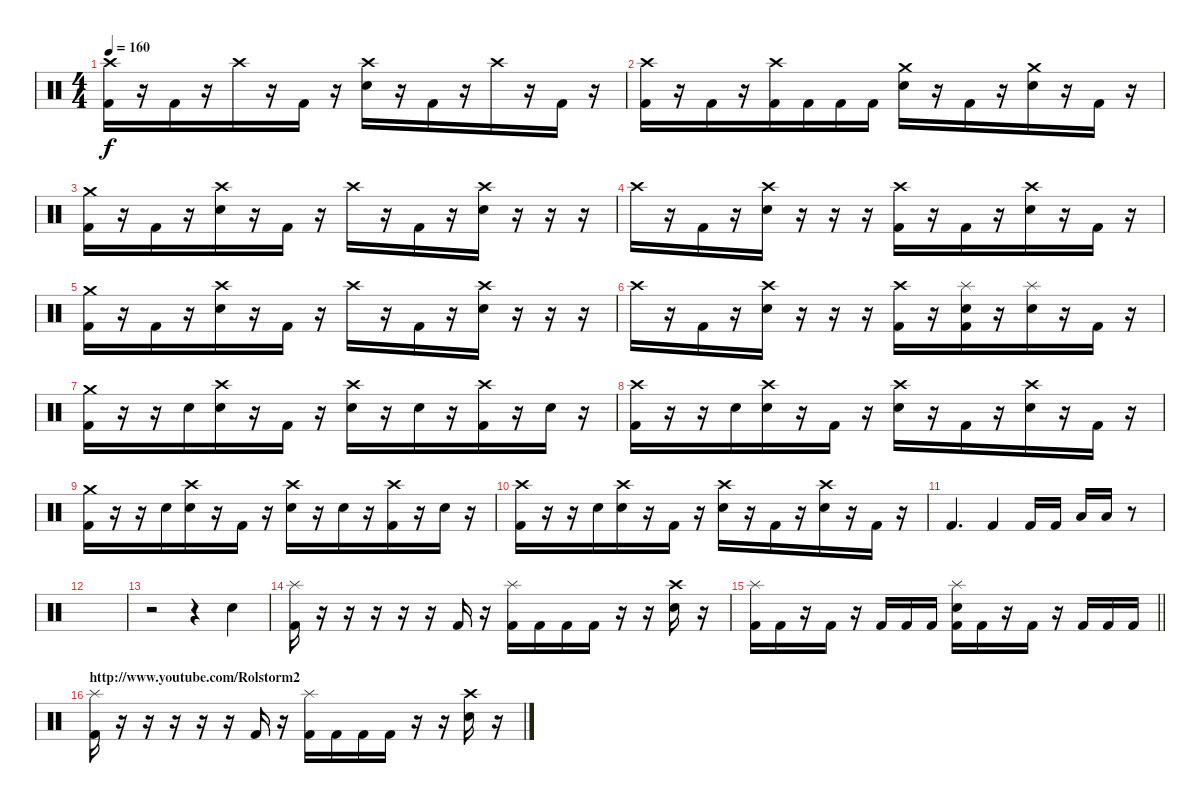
\track "" {instrument percussion}
\staff {score}
\articulation defaults
\ts (4 4)
\tempo 160
\clef neutral
\ks c
("Crash high (hit)" "Kick (hit) 2").16{dy f} r.16 "Kick (hit) 2".16{beam merge} r.16{beam merge} "Crash high (hit)".16 r.16 "Kick (hit) 2".16 r.16 ("Crash high (hit)" "Electric Snare (hit)").16{beam merge} r.16 "Kick (hit) 2".16{beam merge} r.16{beam merge} "Crash high (hit)".16 r.16{beam merge} "Kick (hit) 2".16 r.16 |
("Crash high (hit)" "Kick (hit) 2").16 r.16 "Kick (hit) 2".16{beam merge} r.16{beam merge} ("Crash high (hit)" "Kick (hit) 2").16 "Kick (hit) 2".16 "Kick (hit) 2".16 "Kick (hit) 2".16 ("Crash medium (hit)" "Electric Snare (hit)").16{beam merge} r.16 "Kick (hit) 2".16{beam merge} r.16{beam merge} ("Crash medium (hit)" "Electric Snare (hit)").16 r.16 "Kick (hit) 2".16 r.16 |
("Crash medium (hit)" "Kick (hit) 2").16 r.16 "Kick (hit) 2".16{beam merge} r.16{beam merge} ("Crash high (hit)" "Electric Snare (hit)").16 r.16 "Kick (hit) 2".16 r.16 "Crash high (hit)".16{beam merge} r.16 "Kick (hit) 2".16{beam merge} r.16{beam merge} ("Crash high (hit)" "Electric Snare (hit)").16 r.16{beam merge} r.16 r.16 |
"Crash high (hit)".16 r.16 "Kick (hit) 2".16{beam merge} r.16{beam merge} ("Crash high (hit)" "Electric Snare (hit)").16 r.16 r.16 r.16 ("Crash high (hit)" "Kick (hit) 2").16{beam merge} r.16 "Kick (hit) 2".16{beam merge} r.16{beam merge} ("Crash high (hit)" "Electric Snare (hit)").16 r.16{beam merge} "Kick (hit) 2".16 r.16 |
("Crash medium (hit)" "Kick (hit) 2").16 r.16 "Kick (hit) 2".16{beam merge} r.16{beam merge} ("Crash high (hit)" "Electric Snare (hit)").16 r.16 "Kick (hit) 2".16 r.16 "Crash high (hit)".16{beam merge} r.16 "Kick (hit) 2".16{beam merge} r.16{beam merge} ("Crash high (hit)" "Electric Snare (hit)").16 r.16{beam merge} r.16 r.16 |
"Crash high (hit)".16 r.16 "Kick (hit) 2".16{beam merge} r.16{beam merge} ("Crash high (hit)" "Electric Snare (hit)").16 r.16 r.16 r.16 ("Crash high (hit)" "Kick (hit) 2").16{beam merge} r.16 ("Splash (hit)" "Electric Snare (hit)" "Kick (hit) 2").16{beam merge} r.16{beam merge} ("Splash (hit)" "Electric Snare (hit)").16 r.16{beam merge} "Kick (hit) 2".16 r.16 |
("Crash medium (hit)" "Kick (hit) 2").16 r.16 r.16{beam merge} "Electric Snare (hit)".16{beam merge} ("Crash high (hit)" "Electric Snare (hit)").16 r.16 "Kick (hit) 2".16 r.16 ("Crash high (hit)" "Electric Snare (hit)").16{beam merge} r.16 "Electric Snare (hit)".16{beam merge} r.16{beam merge} ("Crash high (hit)" "Kick (hit) 2").16 r.16{beam merge} "Electric Snare (hit)".16 r.16 |
("Crash high (hit)" "Kick (hit) 2").16 r.16 r.16{beam merge} "Electric Snare (hit)".16{beam merge} ("Crash high (hit)" "Electric Snare (hit)").16 r.16 "Kick (hit) 2".16 r.16 ("Crash high (hit)" "Electric Snare (hit)").16{beam merge} r.16 "Kick (hit) 2".16{beam merge} r.16{beam merge} ("Crash high (hit)" "Electric Snare (hit)").16 r.16{beam merge} "Kick (hit) 2".16 r.16 |
("Crash medium (hit)" "Kick (hit) 2").16 r.16 r.16{beam merge} "Electric Snare (hit)".16{beam merge} ("Crash high (hit)" "Electric Snare (hit)").16 r.16 "Kick (hit) 2".16 r.16 ("Crash high (hit)" "Electric Snare (hit)").16{beam merge} r.16 "Electric Snare (hit)".16{beam merge} r.16{beam merge} ("Crash high (hit)" "Kick (hit) 2").16 r.16{beam merge} "Electric Snare (hit)".16 r.16 |
("Crash high (hit)" "Kick (hit) 2").16 r.16 r.16{beam merge} "Electric Snare (hit)".16{beam merge} ("Crash high (hit)" "Electric Snare (hit)").16 r.16 "Kick (hit) 2".16 r.16 ("Crash high (hit)" "Electric Snare (hit)").16{beam merge} r.16 "Kick (hit) 2".16{beam merge} r.16{beam merge} ("Crash high (hit)" "Electric Snare (hit)").16 r.16{beam merge} "Kick (hit) 2".16 r.16 |
"Kick (hit) 2".4{d} "Kick (hit) 2".4 "Kick (hit) 2".16 "Kick (hit) 2".16 "Low Floor Tom (hit)".16 "Low Floor Tom (hit)".16{beam merge} r.8 |
|
r.2 r.4 "Electric Snare (hit)".4 |
("Splash (hit)" "Kick (hit) 2").16 r.16 r.16 r.16 r.16{beam merge} r.16 "Kick (hit) 2".16 r.16 ("Splash (hit)" "Kick (hit) 2").16 "Kick (hit) 2".16 "Kick (hit) 2".16 "Kick (hit) 2".16 r.16 r.16 ("Crash high (hit)" "Electric Snare (hit)").16{beam merge} r.16 |
\barLineRight lightlight
("Splash (hit)" "Kick (hit) 2").16 "Kick (hit) 2".16 r.16 "Kick (hit) 2".16 r.16{beam merge} "Kick (hit) 2".16{beam merge} "Kick (hit) 2".16 "Kick (hit) 2".16 ("Splash (hit)" "Electric Snare (hit)" "Kick (hit) 2").16 "Kick (hit) 2".16 r.16 "Kick (hit) 2".16 r.16 "Kick (hit) 2".16 "Kick (hit) 2".16{beam merge} "Kick (hit) 2".16 |
\section ("" "http://www.youtube.com/Rolstorm2")
("Splash (hit)" "Kick (hit) 2").16 r.16 r.16 r.16 r.16{beam merge} r.16 "Kick (hit) 2".16 r.16 ("Splash (hit)" "Kick (hit) 2").16 "Kick (hit) 2".16 "Kick (hit) 2".16 "Kick (hit) 2".16 r.16 r.16 ("Crash high (hit)" "Electric Snare (hit)").16{beam merge} r.16
